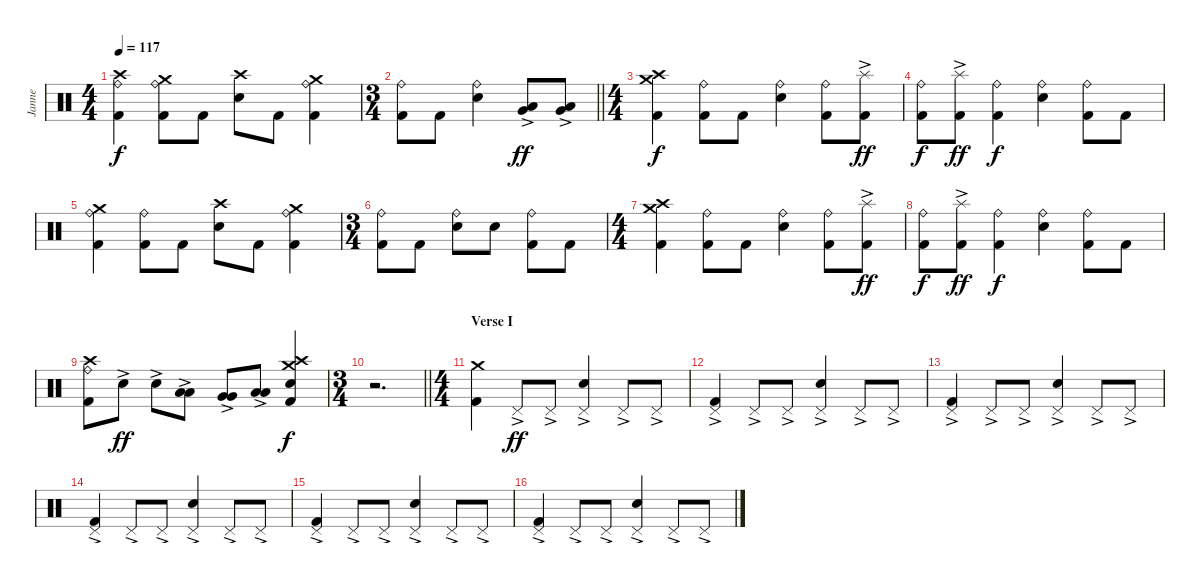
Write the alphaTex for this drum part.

\track ("Janne" "Janne") {instrument percussion}
\staff {score}
\articulation defaults
\ts (4 4)
\tempo 117
\clef neutral
\ks c
("Kick (hit) 2" "Ride (bell)" "Crash high (hit)").4{dy f} ("Kick (hit) 2" "Ride (bell)" "Crash medium (hit)").8 "Kick (hit) 2".8 ("Snare (hit) 2" "Crash high (hit)").8 "Kick (hit) 2".8 ("Kick (hit) 2" "Ride (bell)" "Crash medium (hit)").4 |
\ts (3 4)
\barLineRight lightlight
("Kick (hit) 2" "Ride (bell)").8 "Kick (hit) 2".8 ("Snare (hit) 2" "Ride (bell)").4 ("Low Tom (hit)" "Very Low Tom (hit)"{ac}).8{dy ff} ("Very Low Tom (hit)" "Low Floor Tom (hit)"{ac}).8 |
\ts (4 4)
\section ("" "")
("Kick (hit) 2" "Crash medium (hit)" "Crash high (hit)").4{dy f} ("Kick (hit) 2" "Ride (bell)").8 "Kick (hit) 2".8 ("Snare (hit) 2" "Ride (bell)").4 ("Kick (hit) 2" "Ride (bell)").8 ("Kick (hit) 2" "Splash (hit)"{ac}).8{dy ff} |
("Kick (hit) 2" "Ride (bell)").8{dy f} ("Kick (hit) 2" "Splash (hit)"{ac}).8{dy ff} ("Kick (hit) 2" "Ride (bell)").4{dy f} ("Snare (hit) 2" "Ride (bell)").4 ("Kick (hit) 2" "Ride (bell)").8 "Kick (hit) 2".8 |
("Kick (hit) 2" "Ride (bell)" "Crash medium (hit)").4 ("Kick (hit) 2" "Ride (bell)").8 "Kick (hit) 2".8 ("Snare (hit) 2" "Crash high (hit)").8 "Kick (hit) 2".8 ("Kick (hit) 2" "Ride (bell)" "Crash medium (hit)").4 |
\ts (3 4)
("Kick (hit) 2" "Ride (bell)").8 "Kick (hit) 2".8 ("Snare (hit) 2" "Ride (bell)").8 "Snare (hit) 2".8 ("Kick (hit) 2" "Ride (bell)").8 "Kick (hit) 2".8 |
\ts (4 4)
("Kick (hit) 2" "Crash medium (hit)" "Crash high (hit)").4 ("Kick (hit) 2" "Ride (bell)").8 "Kick (hit) 2".8 ("Snare (hit) 2" "Ride (bell)").4 ("Kick (hit) 2" "Ride (bell)").8 ("Kick (hit) 2" "Splash (hit)"{ac}).8{dy ff} |
("Kick (hit) 2" "Ride (bell)").8{dy f} ("Kick (hit) 2" "Splash (hit)"{ac}).8{dy ff} ("Kick (hit) 2" "Ride (bell)").4{dy f} ("Snare (hit) 2" "Ride (bell)").4 ("Kick (hit) 2" "Ride (bell)").8 "Kick (hit) 2".8 |
("Kick (hit) 2" "Ride (bell)" "Crash high (hit)").8 "Snare (hit) 2"{ac}.8{dy ff} "Snare (hit) 2"{ac}.8 ("Low Tom (hit)"{ac} "Low Tom (hit)"{ac}).8 ("Very Low Tom (hit)"{ac} "Very Low Tom (hit)"{ac}).8 ("Low Floor Tom (hit)"{ac} "Low Floor Tom (hit)"{ac}).8 ("Kick (hit) 2" "Snare (hit) 2" "Crash high (hit)" "Crash medium (hit)").4{dy f} |
\ts (3 4)
\barLineRight lightlight
r.2{d} |
\ts (4 4)
\section ("" "Verse I")
("Kick (hit) 2" "Crash medium (hit)").4 "Pedal Hi-Hat (hit)"{ac}.8{dy ff} "Pedal Hi-Hat (hit)"{ac}.8 ("Snare (hit) 2" "Pedal Hi-Hat (hit)"{ac}).4 "Pedal Hi-Hat (hit)"{ac}.8 "Pedal Hi-Hat (hit)"{ac}.8 |
("Kick (hit) 2" "Pedal Hi-Hat (hit)"{ac}).4 "Pedal Hi-Hat (hit)"{ac}.8 "Pedal Hi-Hat (hit)"{ac}.8 ("Snare (hit) 2" "Pedal Hi-Hat (hit)"{ac}).4 "Pedal Hi-Hat (hit)"{ac}.8 "Pedal Hi-Hat (hit)"{ac}.8 |
("Kick (hit) 2" "Pedal Hi-Hat (hit)"{ac}).4 "Pedal Hi-Hat (hit)"{ac}.8 "Pedal Hi-Hat (hit)"{ac}.8 ("Snare (hit) 2" "Pedal Hi-Hat (hit)"{ac}).4 "Pedal Hi-Hat (hit)"{ac}.8 "Pedal Hi-Hat (hit)"{ac}.8 |
("Kick (hit) 2" "Pedal Hi-Hat (hit)"{ac}).4 "Pedal Hi-Hat (hit)"{ac}.8 "Pedal Hi-Hat (hit)"{ac}.8 ("Snare (hit) 2" "Pedal Hi-Hat (hit)"{ac}).4 "Pedal Hi-Hat (hit)"{ac}.8 "Pedal Hi-Hat (hit)"{ac}.8 |
("Kick (hit) 2" "Pedal Hi-Hat (hit)"{ac}).4 "Pedal Hi-Hat (hit)"{ac}.8 "Pedal Hi-Hat (hit)"{ac}.8 ("Snare (hit) 2" "Pedal Hi-Hat (hit)"{ac}).4 "Pedal Hi-Hat (hit)"{ac}.8 "Pedal Hi-Hat (hit)"{ac}.8 |
("Kick (hit) 2" "Pedal Hi-Hat (hit)"{ac}).4 "Pedal Hi-Hat (hit)"{ac}.8 "Pedal Hi-Hat (hit)"{ac}.8 ("Snare (hit) 2" "Pedal Hi-Hat (hit)"{ac}).4 "Pedal Hi-Hat (hit)"{ac}.8 "Pedal Hi-Hat (hit)"{ac}.8
